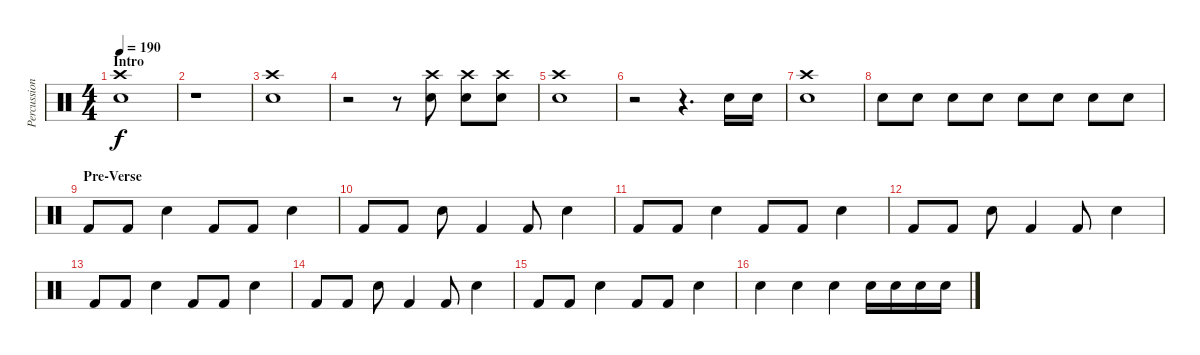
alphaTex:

\track ("Percussion" "Percussion") {instrument percussion}
\staff {score}
\articulation defaults
\ts (4 4)
\section ("" "Intro")
\tempo 190
\clef neutral
\ks c
("Crash high (hit)" "Snare (hit) 2").1{dy f} |
r.1 |
("Snare (hit) 2" "Crash high (hit)").1 |
r.2 r.8 ("Crash high (hit)" "Snare (hit) 2").8 ("Crash high (hit)" "Snare (hit) 2").8 ("Crash high (hit)" "Snare (hit) 2").8 |
("Snare (hit) 2" "Crash high (hit)").1 |
r.2 r.4{d} "Snare (hit) 2".16 "Snare (hit) 2".16 |
("Crash high (hit)" "Snare (hit) 2").1 |
"Snare (hit) 2".8 "Snare (hit) 2".8 "Snare (hit) 2".8 "Snare (hit) 2".8 "Snare (hit) 2".8 "Snare (hit) 2".8 "Snare (hit) 2".8 "Snare (hit) 2".8 |
\section ("" "Pre-Verse")
"Kick (hit) 2".8 "Kick (hit) 2".8 "Snare (hit) 2".4 "Kick (hit) 2".8 "Kick (hit) 2".8 "Snare (hit) 2".4 |
"Kick (hit) 2".8 "Kick (hit) 2".8 "Snare (hit) 2".8 "Kick (hit) 2".4 "Kick (hit) 2".8 "Snare (hit) 2".4 |
"Kick (hit) 2".8 "Kick (hit) 2".8 "Snare (hit) 2".4 "Kick (hit) 2".8 "Kick (hit) 2".8 "Snare (hit) 2".4 |
"Kick (hit) 2".8 "Kick (hit) 2".8 "Snare (hit) 2".8 "Kick (hit) 2".4 "Kick (hit) 2".8 "Snare (hit) 2".4 |
"Kick (hit) 2".8 "Kick (hit) 2".8 "Snare (hit) 2".4 "Kick (hit) 2".8 "Kick (hit) 2".8 "Snare (hit) 2".4 |
"Kick (hit) 2".8 "Kick (hit) 2".8 "Snare (hit) 2".8 "Kick (hit) 2".4 "Kick (hit) 2".8 "Snare (hit) 2".4 |
"Kick (hit) 2".8 "Kick (hit) 2".8 "Snare (hit) 2".4 "Kick (hit) 2".8 "Kick (hit) 2".8 "Snare (hit) 2".4 |
"Snare (hit) 2".4 "Snare (hit) 2".4 "Snare (hit) 2".4 "Snare (hit) 2".16 "Snare (hit) 2".16 "Snare (hit) 2".16 "Snare (hit) 2".16
